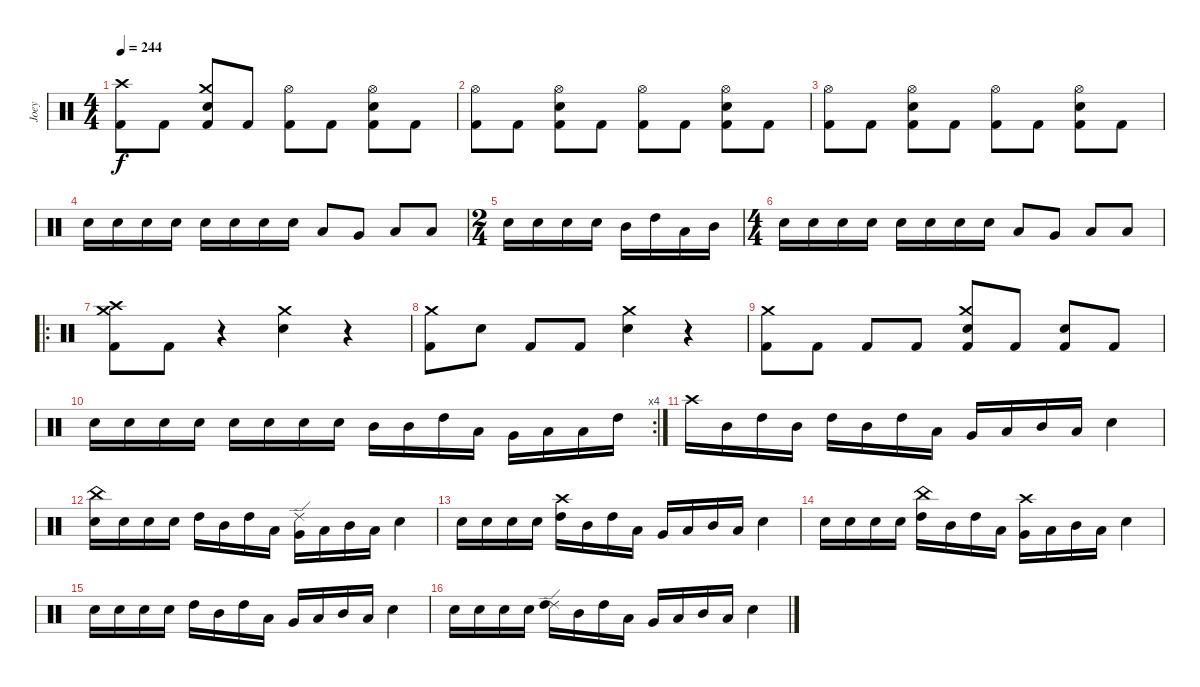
\track ("Joey" "Joey") {instrument percussion}
\staff {score}
\articulation defaults
\ts (4 4)
\tempo 244
\clef neutral
\ks c
("Crash high (hit)" "Kick (hit) 2").8{dy f} "Kick (hit) 2".8 ("Crash medium (hit)" "Snare (hit) 2" "Kick (hit) 2").8 "Kick (hit) 2".8 ("Hi-Hat (open)" "Kick (hit) 2").8 "Kick (hit) 2".8 ("Hi-Hat (open)" "Snare (hit) 2" "Kick (hit) 2").8 "Kick (hit) 2".8 |
("Hi-Hat (open)" "Kick (hit) 2").8 "Kick (hit) 2".8 ("Hi-Hat (open)" "Snare (hit) 2" "Kick (hit) 2").8 "Kick (hit) 2".8 ("Hi-Hat (open)" "Kick (hit) 2").8 "Kick (hit) 2".8 ("Hi-Hat (open)" "Snare (hit) 2" "Kick (hit) 2").8 "Kick (hit) 2".8 |
("Hi-Hat (open)" "Kick (hit) 2").8 "Kick (hit) 2".8 ("Hi-Hat (open)" "Snare (hit) 2" "Kick (hit) 2").8 "Kick (hit) 2".8 ("Hi-Hat (open)" "Kick (hit) 2").8 "Kick (hit) 2".8 ("Hi-Hat (open)" "Snare (hit) 2" "Kick (hit) 2").8 "Kick (hit) 2".8 |
"Snare (hit) 2".16 "Snare (hit) 2".16 "Snare (hit) 2".16 "Snare (hit) 2".16 "Snare (hit) 2".16 "Snare (hit) 2".16 "Snare (hit) 2".16 "Snare (hit) 2".16 "Low Tom (hit)".8 "Very Low Tom (hit)".8 "Low Floor Tom (hit)".8 "Low Tom (hit)".8 |
\ts (2 4)
"Snare (hit) 2".16 "Snare (hit) 2".16 "Snare (hit) 2".16 "Snare (hit) 2".16 "Mid Tom (hit)".16 "High Tom (hit)".16 "Low Floor Tom (hit)".16 "Mid Tom (hit)".16 |
\ts (4 4)
"Snare (hit) 2".16 "Snare (hit) 2".16 "Snare (hit) 2".16 "Snare (hit) 2".16 "Snare (hit) 2".16 "Snare (hit) 2".16 "Snare (hit) 2".16 "Snare (hit) 2".16 "Low Tom (hit)".8 "Very Low Tom (hit)".8 "Low Floor Tom (hit)".8 "Low Tom (hit)".8 |
\ro
("Crash high (hit)" "Crash medium (hit)" "Kick (hit) 2").8 "Kick (hit) 2".8 r.4 ("Crash medium (hit)" "Snare (hit) 2").4 r.4 |
("Crash medium (hit)" "Kick (hit) 2").8 "Snare (hit) 2".8 "Kick (hit) 2".8 "Kick (hit) 2".8 ("Crash medium (hit)" "Snare (hit) 2").4 r.4 |
("Crash medium (hit)" "Kick (hit) 2").8 "Kick (hit) 2".8 "Kick (hit) 2".8 "Kick (hit) 2".8 ("Crash medium (hit)" "Snare (hit) 2" "Kick (hit) 2").8 "Kick (hit) 2".8 ("Snare (hit) 2" "Kick (hit) 2").8 "Kick (hit) 2".8 |
\rc 4 "Snare (hit) 2".16 "Snare (hit) 2".16 "Snare (hit) 2".16 "Snare (hit) 2".16 "Snare (hit) 2".16 "Snare (hit) 2".16 "Snare (hit) 2".16 "Snare (hit) 2".16 "Mid Tom (hit)".16 "Mid Tom (hit)".16 "High Tom (hit)".16 "Low Tom (hit)".16 "Very Low Tom (hit)".16 "Low Floor Tom (hit)".16 "Low Tom (hit)".16 "High Tom (hit)".16
|
"Crash high (hit)".16 "Mid Tom (hit)".16 "High Tom (hit)".16 "Mid Tom (hit)".16 "High Tom (hit)".16 "Mid Tom (hit)".16 "High Tom (hit)".16 "Low Tom (hit)".16 "Very Low Tom (hit)".16 "Low Floor Tom (hit)".16 "Mid Tom (hit)".16 "Low Floor Tom (hit)".16 "Snare (hit) 2".4 |
("China (hit)" "Snare (hit) 2").16 "Snare (hit) 2".16 "Snare (hit) 2".16 "Snare (hit) 2".16 "High Tom (hit)".16 "Mid Tom (hit)".16 "High Tom (hit)".16 "Low Tom (hit)".16 ("Ride (edge) 2" "Very Low Tom (hit)").16 "Low Floor Tom (hit)".16 "Mid Tom (hit)".16 "Low Floor Tom (hit)".16 "Snare (hit) 2".4 |
"Snare (hit) 2".16 "Snare (hit) 2".16 "Snare (hit) 2".16 "Snare (hit) 2".16 ("Crash high (hit)" "High Tom (hit)").16 "Mid Tom (hit)".16 "High Tom (hit)".16 "Low Tom (hit)".16 "Very Low Tom (hit)".16 "Low Floor Tom (hit)".16 "Mid Tom (hit)".16 "Low Floor Tom (hit)".16 "Snare (hit) 2".4 |
"Snare (hit) 2".16 "Snare (hit) 2".16 "Snare (hit) 2".16 "Snare (hit) 2".16 ("China (hit)" "High Tom (hit)").16 "Mid Tom (hit)".16 "High Tom (hit)".16 "Low Tom (hit)".16 ("Crash high (hit)" "Very Low Tom (hit)").16 "Low Floor Tom (hit)".16 "Mid Tom (hit)".16 "Low Floor Tom (hit)".16 "Snare (hit) 2".4 |
"Snare (hit) 2".16 "Snare (hit) 2".16 "Snare (hit) 2".16 "Snare (hit) 2".16 "High Tom (hit)".16 "Mid Tom (hit)".16 "High Tom (hit)".16 "Low Tom (hit)".16 "Very Low Tom (hit)".16 "Low Floor Tom (hit)".16 "Mid Tom (hit)".16 "Low Floor Tom (hit)".16 "Snare (hit) 2".4 |
"Snare (hit) 2".16 "Snare (hit) 2".16 "Snare (hit) 2".16 "Snare (hit) 2".16 ("Ride (edge) 2" "High Tom (hit)").16 "Mid Tom (hit)".16 "High Tom (hit)".16 "Low Tom (hit)".16 "Very Low Tom (hit)".16 "Low Floor Tom (hit)".16 "Mid Tom (hit)".16 "Low Floor Tom (hit)".16 "Snare (hit) 2".4
